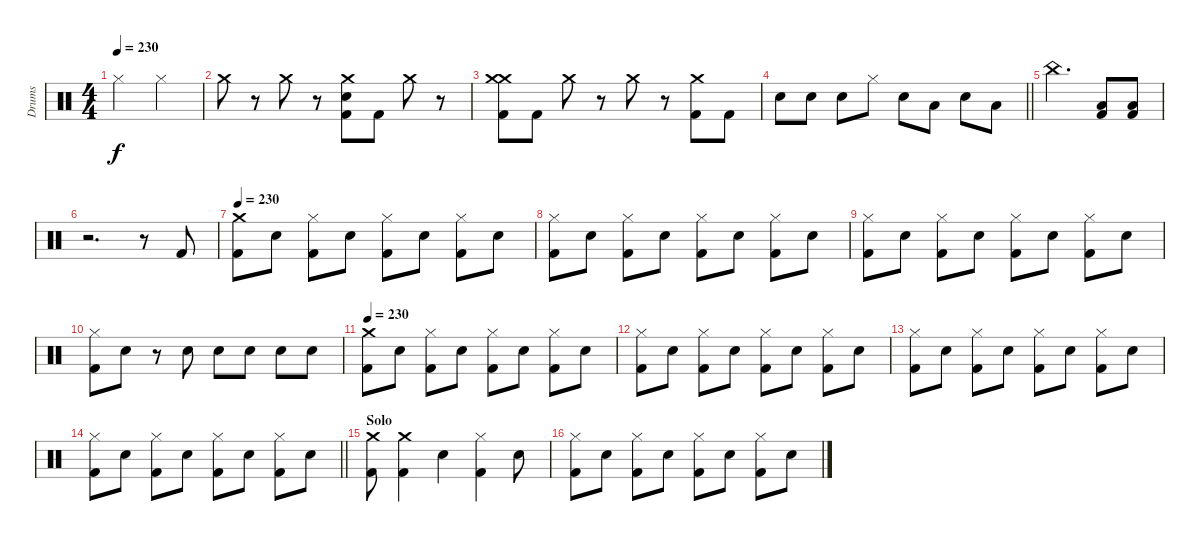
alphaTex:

\track ("Drums" "Drums") {instrument percussion}
\staff {score}
\articulation defaults
\ts (4 4)
\tempo 230
\clef neutral
\ks c "Hi-Hat (closed)".2{dy f} "Hi-Hat (closed)".2
|
"Crash medium (hit)".8 r.8 "Crash medium (hit)".8 r.8 ("Crash medium (hit)" "Kick (hit) 2" "Snare (hit) 2").8 "Kick (hit) 2".8 "Crash medium (hit)".8 r.8 |
("Crash medium (hit)" "Crash medium (hit)" "Kick (hit) 2").8 "Kick (hit) 2".8 "Crash medium (hit)".8 r.8 "Crash medium (hit)".8 r.8 ("Crash medium (hit)" "Kick (hit) 2").8 "Kick (hit) 2".8 |
\barLineRight lightlight "Snare (hit) 2".8 "Snare (hit) 2".8 "Snare (hit) 2".8 "Hi-Hat (closed)".8 "Snare (hit) 2".8 "Low Tom (hit)".8 "Snare (hit) 2".8 "Low Floor Tom (hit)".8
|
\section ("" "")
"China (hit)".2{d} ("Low Floor Tom (hit)" "Kick (hit) 2").8 ("Low Floor Tom (hit)" "Kick (hit) 2").8 |
r.2{d} r.8 "Kick (hit) 2".8 |
\tempo 230
("Crash medium (hit)" "Kick (hit) 2").8 "Snare (hit) 2".8 ("Hi-Hat (closed)" "Kick (hit) 2").8 "Snare (hit) 2".8 ("Hi-Hat (closed)" "Kick (hit) 2").8 "Snare (hit) 2".8 ("Hi-Hat (closed)" "Kick (hit) 2").8 "Snare (hit) 2".8 |
("Hi-Hat (closed)" "Kick (hit) 2").8 "Snare (hit) 2".8 ("Hi-Hat (closed)" "Kick (hit) 2").8 "Snare (hit) 2".8 ("Hi-Hat (closed)" "Kick (hit) 2").8 "Snare (hit) 2".8 ("Hi-Hat (closed)" "Kick (hit) 2").8 "Snare (hit) 2".8 |
("Hi-Hat (closed)" "Kick (hit) 2").8 "Snare (hit) 2".8 ("Hi-Hat (closed)" "Kick (hit) 2").8 "Snare (hit) 2".8 ("Hi-Hat (closed)" "Kick (hit) 2").8 "Snare (hit) 2".8 ("Hi-Hat (closed)" "Kick (hit) 2").8 "Snare (hit) 2".8 |
("Kick (hit) 2" "Hi-Hat (closed)").8 "Snare (hit) 2".8 r.8 "Snare (hit) 2".8 "Snare (hit) 2".8 "Snare (hit) 2".8 "Snare (hit) 2".8 "Snare (hit) 2".8 |
\tempo 230
("Crash medium (hit)" "Kick (hit) 2").8 "Snare (hit) 2".8 ("Hi-Hat (closed)" "Kick (hit) 2").8 "Snare (hit) 2".8 ("Hi-Hat (closed)" "Kick (hit) 2").8 "Snare (hit) 2".8 ("Hi-Hat (closed)" "Kick (hit) 2").8 "Snare (hit) 2".8 |
("Hi-Hat (closed)" "Kick (hit) 2").8 "Snare (hit) 2".8 ("Hi-Hat (closed)" "Kick (hit) 2").8 "Snare (hit) 2".8 ("Hi-Hat (closed)" "Kick (hit) 2").8 "Snare (hit) 2".8 ("Hi-Hat (closed)" "Kick (hit) 2").8 "Snare (hit) 2".8 |
("Hi-Hat (closed)" "Kick (hit) 2").8 "Snare (hit) 2".8 ("Hi-Hat (closed)" "Kick (hit) 2").8 "Snare (hit) 2".8 ("Hi-Hat (closed)" "Kick (hit) 2").8 "Snare (hit) 2".8 ("Hi-Hat (closed)" "Kick (hit) 2").8 "Snare (hit) 2".8 |
\barLineRight lightlight
("Hi-Hat (closed)" "Kick (hit) 2").8 "Snare (hit) 2".8 ("Hi-Hat (closed)" "Kick (hit) 2").8 "Snare (hit) 2".8 ("Hi-Hat (closed)" "Kick (hit) 2").8 "Snare (hit) 2".8 ("Hi-Hat (closed)" "Kick (hit) 2").8 "Snare (hit) 2".8 |
\section ("" "Solo")
("Kick (hit) 2" "Crash medium (hit)").8 ("Kick (hit) 2" "Crash medium (hit)").4 "Snare (hit) 2".4 ("Kick (hit) 2" "Hi-Hat (closed)").4 "Snare (hit) 2".8 |
("Kick (hit) 2" "Hi-Hat (closed)").8 "Snare (hit) 2".8 ("Kick (hit) 2" "Hi-Hat (closed)").8 "Snare (hit) 2".8 ("Kick (hit) 2" "Hi-Hat (closed)").8 "Snare (hit) 2".8 ("Kick (hit) 2" "Hi-Hat (closed)").8 "Snare (hit) 2".8
